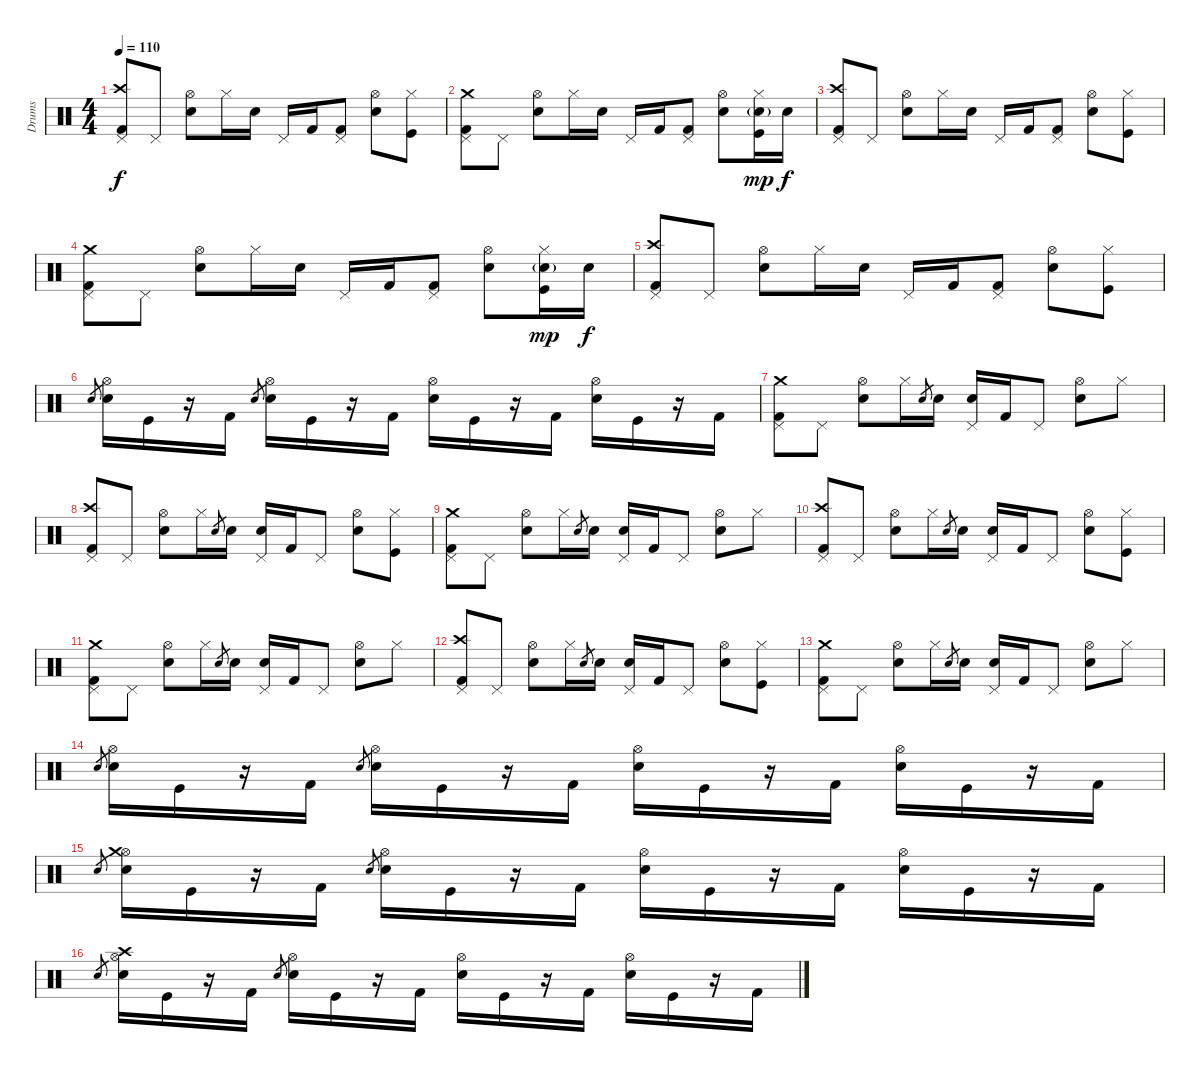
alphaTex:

\track ("Drums" "Drums") {instrument percussion}
\staff {score}
\articulation defaults
\ts (4 4)
\tempo 110
\clef neutral
\ks c
("Pedal Hi-Hat (hit)" "Crash high (hit)" "Kick (hit) 2").8{dy f} "Pedal Hi-Hat (hit)".8 ("Hi-Hat (open)" "Electric Snare (hit)").8 "Hi-Hat (closed)".16 "Electric Snare (hit)".16 "Pedal Hi-Hat (hit)".16 "Kick (hit) 2".16 ("Pedal Hi-Hat (hit)" "Kick (hit) 2").8 ("Hi-Hat (open)" "Electric Snare (hit)").8 ("Hi-Hat (closed)" "Kick (hit)").8 |
("Pedal Hi-Hat (hit)" "Crash medium (hit)" "Kick (hit) 2").8 "Pedal Hi-Hat (hit)".8 ("Hi-Hat (open)" "Electric Snare (hit)").8 "Hi-Hat (closed)".16 "Electric Snare (hit)".16 "Pedal Hi-Hat (hit)".16 "Kick (hit) 2".16 ("Pedal Hi-Hat (hit)" "Kick (hit) 2").8 ("Hi-Hat (open)" "Electric Snare (hit)").8 ("Hi-Hat (closed)" "Electric Snare (hit)"{g} "Kick (hit)").16{dy mp} "Electric Snare (hit)".16{dy f} |
("Pedal Hi-Hat (hit)" "Crash high (hit)" "Kick (hit) 2").8 "Pedal Hi-Hat (hit)".8 ("Hi-Hat (open)" "Electric Snare (hit)").8 "Hi-Hat (closed)".16 "Electric Snare (hit)".16 "Pedal Hi-Hat (hit)".16 "Kick (hit) 2".16 ("Pedal Hi-Hat (hit)" "Kick (hit) 2").8 ("Hi-Hat (open)" "Electric Snare (hit)").8 ("Hi-Hat (closed)" "Kick (hit)").8 |
("Pedal Hi-Hat (hit)" "Crash medium (hit)" "Kick (hit) 2").8 "Pedal Hi-Hat (hit)".8 ("Hi-Hat (open)" "Electric Snare (hit)").8 "Hi-Hat (closed)".16 "Electric Snare (hit)".16 "Pedal Hi-Hat (hit)".16 "Kick (hit) 2".16 ("Pedal Hi-Hat (hit)" "Kick (hit) 2").8 ("Hi-Hat (open)" "Electric Snare (hit)").8 ("Hi-Hat (closed)" "Electric Snare (hit)"{g} "Kick (hit)").16{dy mp} "Electric Snare (hit)".16{dy f} |
("Pedal Hi-Hat (hit)" "Crash high (hit)" "Kick (hit) 2").8 "Pedal Hi-Hat (hit)".8 ("Hi-Hat (open)" "Electric Snare (hit)").8 "Hi-Hat (closed)".16 "Electric Snare (hit)".16 "Pedal Hi-Hat (hit)".16 "Kick (hit) 2".16 ("Pedal Hi-Hat (hit)" "Kick (hit) 2").8 ("Hi-Hat (open)" "Electric Snare (hit)").8 ("Hi-Hat (closed)" "Kick (hit)").8 |
"Electric Snare (hit)"{sl}.8{gr} ("Hi-Hat (open)" "Electric Snare (hit)").16 "Kick (hit)".16 r.16 "Kick (hit) 2".16 "Electric Snare (hit)"{sl}.8{gr} ("Hi-Hat (open)" "Electric Snare (hit)").16 "Kick (hit)".16 r.16 "Kick (hit) 2".16 ("Hi-Hat (open)" "Electric Snare (hit)").16 "Kick (hit)".16 r.16 "Kick (hit) 2".16 ("Hi-Hat (open)" "Electric Snare (hit)").16 "Kick (hit)".16 r.16 "Kick (hit) 2".16 |
("Pedal Hi-Hat (hit)" "Crash medium (hit)" "Kick (hit) 2").8 "Pedal Hi-Hat (hit)".8 ("Hi-Hat (open)" "Electric Snare (hit)").8 "Hi-Hat (closed)".16 "Electric Snare (hit)"{sl}.8{gr} "Electric Snare (hit)".16 ("Pedal Hi-Hat (hit)" "Electric Snare (hit)").16 "Kick (hit) 2".16 "Pedal Hi-Hat (hit)".8 ("Hi-Hat (open)" "Electric Snare (hit)").8 "Hi-Hat (closed)".8 |
("Pedal Hi-Hat (hit)" "Crash high (hit)" "Kick (hit) 2").8 "Pedal Hi-Hat (hit)".8 ("Hi-Hat (open)" "Electric Snare (hit)").8 "Hi-Hat (closed)".16 "Electric Snare (hit)"{sl}.8{gr} "Electric Snare (hit)".16 ("Pedal Hi-Hat (hit)" "Electric Snare (hit)").16 "Kick (hit) 2".16 "Pedal Hi-Hat (hit)".8 ("Hi-Hat (open)" "Electric Snare (hit)").8 ("Hi-Hat (closed)" "Kick (hit)").8 |
("Pedal Hi-Hat (hit)" "Crash medium (hit)" "Kick (hit) 2").8 "Pedal Hi-Hat (hit)".8 ("Hi-Hat (open)" "Electric Snare (hit)").8 "Hi-Hat (closed)".16 "Electric Snare (hit)"{sl}.8{gr} "Electric Snare (hit)".16 ("Pedal Hi-Hat (hit)" "Electric Snare (hit)").16 "Kick (hit) 2".16 "Pedal Hi-Hat (hit)".8 ("Hi-Hat (open)" "Electric Snare (hit)").8 "Hi-Hat (closed)".8 |
("Pedal Hi-Hat (hit)" "Crash high (hit)" "Kick (hit) 2").8 "Pedal Hi-Hat (hit)".8 ("Hi-Hat (open)" "Electric Snare (hit)").8 "Hi-Hat (closed)".16 "Electric Snare (hit)"{sl}.8{gr} "Electric Snare (hit)".16 ("Pedal Hi-Hat (hit)" "Electric Snare (hit)").16 "Kick (hit) 2".16 "Pedal Hi-Hat (hit)".8 ("Hi-Hat (open)" "Electric Snare (hit)").8 ("Hi-Hat (closed)" "Kick (hit)").8 |
("Pedal Hi-Hat (hit)" "Crash medium (hit)" "Kick (hit) 2").8 "Pedal Hi-Hat (hit)".8 ("Hi-Hat (open)" "Electric Snare (hit)").8 "Hi-Hat (closed)".16 "Electric Snare (hit)"{sl}.8{gr} "Electric Snare (hit)".16 ("Pedal Hi-Hat (hit)" "Electric Snare (hit)").16 "Kick (hit) 2".16 "Pedal Hi-Hat (hit)".8 ("Hi-Hat (open)" "Electric Snare (hit)").8 "Hi-Hat (closed)".8 |
("Pedal Hi-Hat (hit)" "Crash high (hit)" "Kick (hit) 2").8 "Pedal Hi-Hat (hit)".8 ("Hi-Hat (open)" "Electric Snare (hit)").8 "Hi-Hat (closed)".16 "Electric Snare (hit)"{sl}.8{gr} "Electric Snare (hit)".16 ("Pedal Hi-Hat (hit)" "Electric Snare (hit)").16 "Kick (hit) 2".16 "Pedal Hi-Hat (hit)".8 ("Hi-Hat (open)" "Electric Snare (hit)").8 ("Hi-Hat (closed)" "Kick (hit)").8 |
("Pedal Hi-Hat (hit)" "Crash medium (hit)" "Kick (hit) 2").8 "Pedal Hi-Hat (hit)".8 ("Hi-Hat (open)" "Electric Snare (hit)").8 "Hi-Hat (closed)".16 "Electric Snare (hit)"{sl}.8{gr} "Electric Snare (hit)".16 ("Pedal Hi-Hat (hit)" "Electric Snare (hit)").16 "Kick (hit) 2".16 "Pedal Hi-Hat (hit)".8 ("Hi-Hat (open)" "Electric Snare (hit)").8 "Hi-Hat (closed)".8 |
"Electric Snare (hit)"{sl}.8{gr} ("Hi-Hat (open)" "Electric Snare (hit)").16 "Kick (hit)".16 r.16 "Kick (hit) 2".16 "Electric Snare (hit)"{sl}.8{gr} ("Hi-Hat (open)" "Electric Snare (hit)").16 "Kick (hit)".16 r.16 "Kick (hit) 2".16 ("Hi-Hat (open)" "Electric Snare (hit)").16 "Kick (hit)".16 r.16 "Kick (hit) 2".16 ("Hi-Hat (open)" "Electric Snare (hit)").16 "Kick (hit)".16 r.16 "Kick (hit) 2".16 |
"Electric Snare (hit)"{sl}.8{gr} ("Hi-Hat (open)" "Crash medium (hit)" "Electric Snare (hit)").16 "Kick (hit)".16 r.16 "Kick (hit) 2".16 "Electric Snare (hit)"{sl}.8{gr} ("Hi-Hat (open)" "Electric Snare (hit)").16 "Kick (hit)".16 r.16 "Kick (hit) 2".16 ("Hi-Hat (open)" "Electric Snare (hit)").16 "Kick (hit)".16 r.16 "Kick (hit) 2".16 ("Hi-Hat (open)" "Electric Snare (hit)").16 "Kick (hit)".16 r.16 "Kick (hit) 2".16 |
"Electric Snare (hit)"{sl}.8{gr} ("Hi-Hat (open)" "Crash high (hit)" "Electric Snare (hit)").16 "Kick (hit)".16 r.16 "Kick (hit) 2".16 "Electric Snare (hit)"{sl}.8{gr} ("Hi-Hat (open)" "Electric Snare (hit)").16 "Kick (hit)".16 r.16 "Kick (hit) 2".16 ("Hi-Hat (open)" "Electric Snare (hit)").16 "Kick (hit)".16 r.16 "Kick (hit) 2".16 ("Hi-Hat (open)" "Electric Snare (hit)").16 "Kick (hit)".16 r.16 "Kick (hit) 2".16
